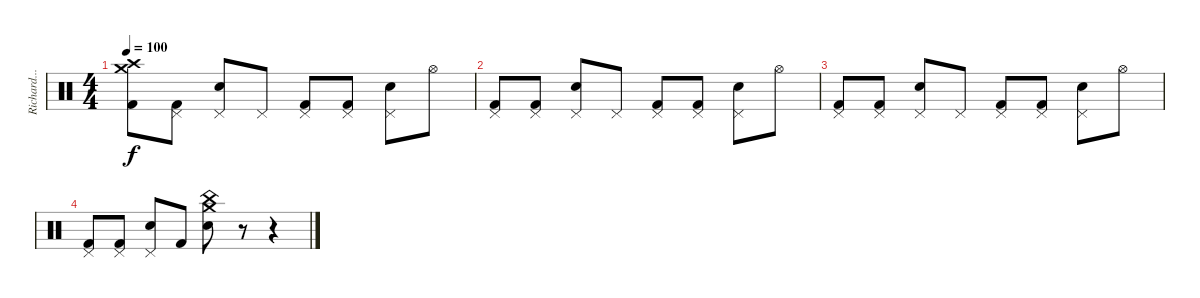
\track ("Richard...clon..." "Richard...") {instrument percussion}
\staff {score}
\articulation defaults
\ts (4 4)
\tempo 100
\clef neutral
\ks c
("Crash medium (hit)" "Crash high (hit)" "Kick (hit) 2").8{dy f} ("Pedal Hi-Hat (hit)" "Kick (hit) 2").8 ("Pedal Hi-Hat (hit)" "Snare (hit) 2").8 "Pedal Hi-Hat (hit)".8 ("Pedal Hi-Hat (hit)" "Kick (hit) 2").8 ("Pedal Hi-Hat (hit)" "Kick (hit) 2").8 ("Pedal Hi-Hat (hit)" "Snare (hit) 2").8 "Hi-Hat (open)".8 |
("Pedal Hi-Hat (hit)" "Kick (hit) 2").8 ("Pedal Hi-Hat (hit)" "Kick (hit) 2").8 ("Pedal Hi-Hat (hit)" "Snare (hit) 2").8 "Pedal Hi-Hat (hit)".8 ("Pedal Hi-Hat (hit)" "Kick (hit) 2").8 ("Pedal Hi-Hat (hit)" "Kick (hit) 2").8 ("Pedal Hi-Hat (hit)" "Snare (hit) 2").8 "Hi-Hat (open)".8 |
("Pedal Hi-Hat (hit)" "Kick (hit) 2").8 ("Pedal Hi-Hat (hit)" "Kick (hit) 2").8 ("Pedal Hi-Hat (hit)" "Snare (hit) 2").8 "Pedal Hi-Hat (hit)".8 ("Pedal Hi-Hat (hit)" "Kick (hit) 2").8 ("Pedal Hi-Hat (hit)" "Kick (hit) 2").8 ("Pedal Hi-Hat (hit)" "Snare (hit) 2").8 "Hi-Hat (open)".8 |
("Pedal Hi-Hat (hit)" "Kick (hit) 2").8 ("Pedal Hi-Hat (hit)" "Kick (hit) 2").8 ("Pedal Hi-Hat (hit)" "Snare (hit) 2").8 "Kick (hit) 2".8 ("China (hit)" "Crash medium (hit)" "Snare (hit) 2").8 r.8 r.4
